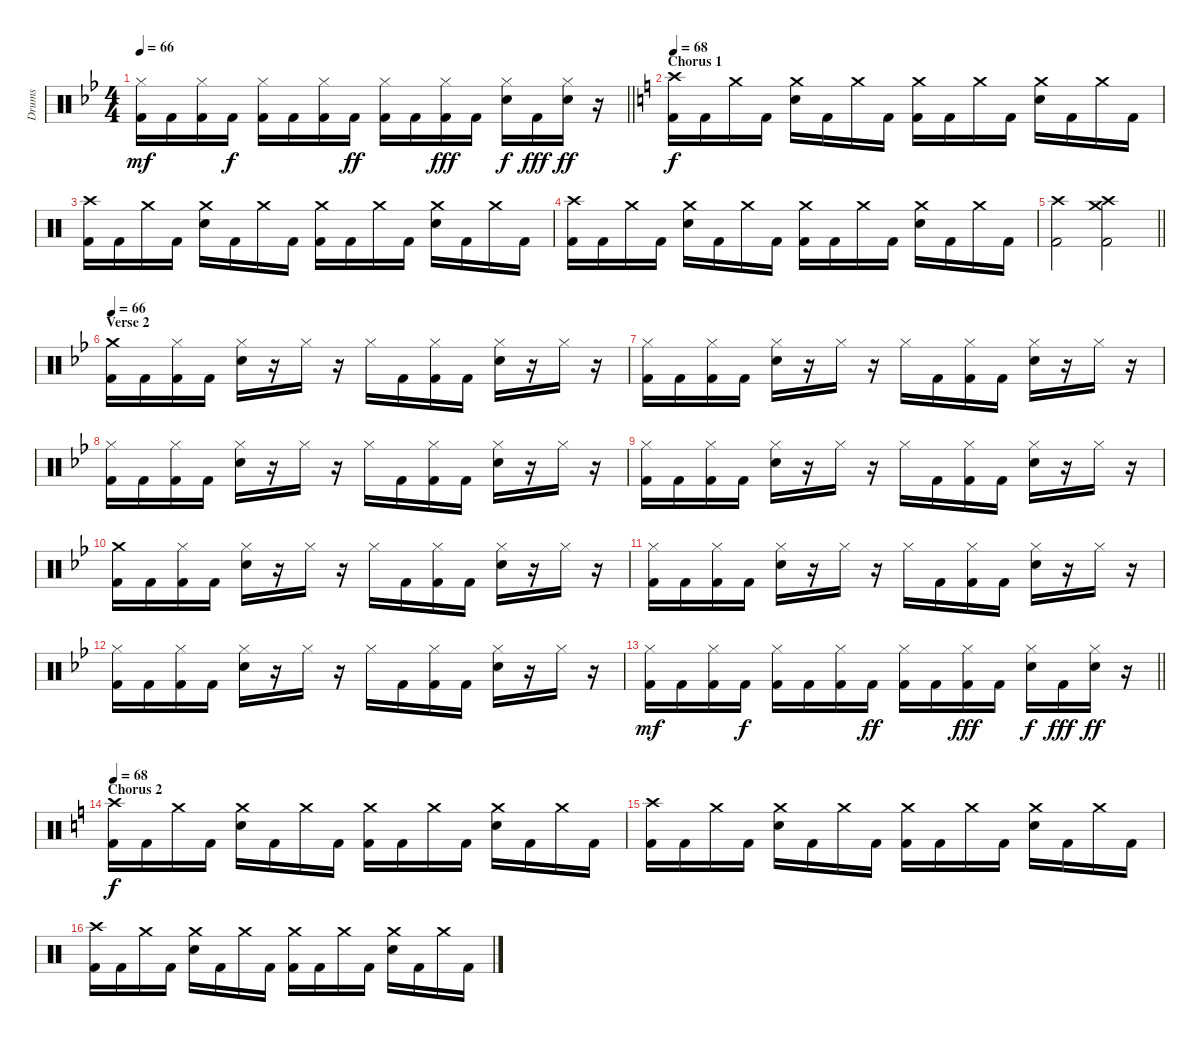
\track ("Drums" "Drums") {instrument percussion}
\staff {score}
\articulation defaults
\ts (4 4)
\tempo 66
\clef neutral
\barLineRight lightlight
\ks bb
("Hi-Hat (closed)" "Kick (hit) 2").16{dy mf} "Kick (hit) 2".16 ("Hi-Hat (closed)" "Kick (hit) 2").16 "Kick (hit) 2".16{dy f} ("Hi-Hat (closed)" "Kick (hit) 2").16 "Kick (hit) 2".16 ("Hi-Hat (closed)" "Kick (hit) 2").16 "Kick (hit) 2".16{dy ff} ("Hi-Hat (closed)" "Kick (hit) 2").16 "Kick (hit) 2".16 ("Hi-Hat (closed)" "Kick (hit) 2").16{dy fff} "Kick (hit) 2".16 ("Hi-Hat (closed)" "Electric Snare (hit)").16{dy f} "Kick (hit) 2".16{dy fff} ("Hi-Hat (closed)" "Electric Snare (hit)").16{dy ff} r.16 |
\section ("" "Chorus 1")
\tempo 68
\ks c
("Crash high (hit)" "Kick (hit) 2").16{dy f} "Kick (hit) 2".16 "Crash medium (hit)".16 "Kick (hit) 2".16 ("Crash medium (hit)" "Electric Snare (hit)").16 "Kick (hit) 2".16 "Crash medium (hit)".16 "Kick (hit) 2".16 ("Crash medium (hit)" "Kick (hit) 2").16 "Kick (hit) 2".16 "Crash medium (hit)".16 "Kick (hit) 2".16 ("Crash medium (hit)" "Electric Snare (hit)").16 "Kick (hit) 2".16 "Crash medium (hit)".16 "Kick (hit) 2".16 |
("Crash high (hit)" "Kick (hit) 2").16 "Kick (hit) 2".16 "Crash medium (hit)".16 "Kick (hit) 2".16 ("Crash medium (hit)" "Electric Snare (hit)").16 "Kick (hit) 2".16 "Crash medium (hit)".16 "Kick (hit) 2".16 ("Crash medium (hit)" "Kick (hit) 2").16 "Kick (hit) 2".16 "Crash medium (hit)".16 "Kick (hit) 2".16 ("Crash medium (hit)" "Electric Snare (hit)").16 "Kick (hit) 2".16 "Crash medium (hit)".16 "Kick (hit) 2".16 |
("Crash high (hit)" "Kick (hit) 2").16 "Kick (hit) 2".16 "Crash medium (hit)".16 "Kick (hit) 2".16 ("Crash medium (hit)" "Electric Snare (hit)").16 "Kick (hit) 2".16 "Crash medium (hit)".16 "Kick (hit) 2".16 ("Crash medium (hit)" "Kick (hit) 2").16 "Kick (hit) 2".16 "Crash medium (hit)".16 "Kick (hit) 2".16 ("Crash medium (hit)" "Electric Snare (hit)").16 "Kick (hit) 2".16 "Crash medium (hit)".16 "Kick (hit) 2".16 |
\barLineRight lightlight
("Crash high (hit)" "Kick (hit) 2").2 ("Crash high (hit)" "Crash medium (hit)" "Kick (hit) 2").2 |
\section ("" "Verse 2")
\tempo 66
\ks bb
("Crash medium (hit)" "Kick (hit) 2").16 "Kick (hit) 2".16 ("Hi-Hat (closed)" "Kick (hit) 2").16 "Kick (hit) 2".16 ("Hi-Hat (closed)" "Electric Snare (hit)").16 r.16 "Hi-Hat (closed)".16 r.16 "Hi-Hat (closed)".16 "Kick (hit) 2".16 ("Hi-Hat (closed)" "Kick (hit) 2").16 "Kick (hit) 2".16 ("Hi-Hat (closed)" "Electric Snare (hit)").16 r.16 "Hi-Hat (closed)".16 r.16 |
("Hi-Hat (closed)" "Kick (hit) 2").16 "Kick (hit) 2".16 ("Hi-Hat (closed)" "Kick (hit) 2").16 "Kick (hit) 2".16 ("Hi-Hat (closed)" "Electric Snare (hit)").16 r.16 "Hi-Hat (closed)".16 r.16 "Hi-Hat (closed)".16 "Kick (hit) 2".16 ("Hi-Hat (closed)" "Kick (hit) 2").16 "Kick (hit) 2".16 ("Hi-Hat (closed)" "Electric Snare (hit)").16 r.16 "Hi-Hat (closed)".16 r.16 |
("Hi-Hat (closed)" "Kick (hit) 2").16 "Kick (hit) 2".16 ("Hi-Hat (closed)" "Kick (hit) 2").16 "Kick (hit) 2".16 ("Hi-Hat (closed)" "Electric Snare (hit)").16 r.16 "Hi-Hat (closed)".16 r.16 "Hi-Hat (closed)".16 "Kick (hit) 2".16 ("Hi-Hat (closed)" "Kick (hit) 2").16 "Kick (hit) 2".16 ("Hi-Hat (closed)" "Electric Snare (hit)").16 r.16 "Hi-Hat (closed)".16 r.16 |
("Hi-Hat (closed)" "Kick (hit) 2").16 "Kick (hit) 2".16 ("Hi-Hat (closed)" "Kick (hit) 2").16 "Kick (hit) 2".16 ("Hi-Hat (closed)" "Electric Snare (hit)").16 r.16 "Hi-Hat (closed)".16 r.16 "Hi-Hat (closed)".16 "Kick (hit) 2".16 ("Hi-Hat (closed)" "Kick (hit) 2").16 "Kick (hit) 2".16 ("Hi-Hat (closed)" "Electric Snare (hit)").16 r.16 "Hi-Hat (closed)".16 r.16 |
("Crash medium (hit)" "Kick (hit) 2").16 "Kick (hit) 2".16 ("Hi-Hat (closed)" "Kick (hit) 2").16 "Kick (hit) 2".16 ("Hi-Hat (closed)" "Electric Snare (hit)").16 r.16 "Hi-Hat (closed)".16 r.16 "Hi-Hat (closed)".16 "Kick (hit) 2".16 ("Hi-Hat (closed)" "Kick (hit) 2").16 "Kick (hit) 2".16 ("Hi-Hat (closed)" "Electric Snare (hit)").16 r.16 "Hi-Hat (closed)".16 r.16 |
("Hi-Hat (closed)" "Kick (hit) 2").16 "Kick (hit) 2".16 ("Hi-Hat (closed)" "Kick (hit) 2").16 "Kick (hit) 2".16 ("Hi-Hat (closed)" "Electric Snare (hit)").16 r.16 "Hi-Hat (closed)".16 r.16 "Hi-Hat (closed)".16 "Kick (hit) 2".16 ("Hi-Hat (closed)" "Kick (hit) 2").16 "Kick (hit) 2".16 ("Hi-Hat (closed)" "Electric Snare (hit)").16 r.16 "Hi-Hat (closed)".16 r.16 |
("Hi-Hat (closed)" "Kick (hit) 2").16 "Kick (hit) 2".16 ("Hi-Hat (closed)" "Kick (hit) 2").16 "Kick (hit) 2".16 ("Hi-Hat (closed)" "Electric Snare (hit)").16 r.16 "Hi-Hat (closed)".16 r.16 "Hi-Hat (closed)".16 "Kick (hit) 2".16 ("Hi-Hat (closed)" "Kick (hit) 2").16 "Kick (hit) 2".16 ("Hi-Hat (closed)" "Electric Snare (hit)").16 r.16 "Hi-Hat (closed)".16 r.16 |
\barLineRight lightlight
("Hi-Hat (closed)" "Kick (hit) 2").16{dy mf} "Kick (hit) 2".16 ("Hi-Hat (closed)" "Kick (hit) 2").16 "Kick (hit) 2".16{dy f} ("Hi-Hat (closed)" "Kick (hit) 2").16 "Kick (hit) 2".16 ("Hi-Hat (closed)" "Kick (hit) 2").16 "Kick (hit) 2".16{dy ff} ("Hi-Hat (closed)" "Kick (hit) 2").16 "Kick (hit) 2".16 ("Hi-Hat (closed)" "Kick (hit) 2").16{dy fff} "Kick (hit) 2".16 ("Hi-Hat (closed)" "Electric Snare (hit)").16{dy f} "Kick (hit) 2".16{dy fff} ("Hi-Hat (closed)" "Electric Snare (hit)").16{dy ff} r.16 |
\section ("" "Chorus 2")
\tempo 68
\ks c
("Crash high (hit)" "Kick (hit) 2").16{dy f} "Kick (hit) 2".16 "Crash medium (hit)".16 "Kick (hit) 2".16 ("Crash medium (hit)" "Electric Snare (hit)").16 "Kick (hit) 2".16 "Crash medium (hit)".16 "Kick (hit) 2".16 ("Crash medium (hit)" "Kick (hit) 2").16 "Kick (hit) 2".16 "Crash medium (hit)".16 "Kick (hit) 2".16 ("Crash medium (hit)" "Electric Snare (hit)").16 "Kick (hit) 2".16 "Crash medium (hit)".16 "Kick (hit) 2".16 |
("Crash high (hit)" "Kick (hit) 2").16 "Kick (hit) 2".16 "Crash medium (hit)".16 "Kick (hit) 2".16 ("Crash medium (hit)" "Electric Snare (hit)").16 "Kick (hit) 2".16 "Crash medium (hit)".16 "Kick (hit) 2".16 ("Crash medium (hit)" "Kick (hit) 2").16 "Kick (hit) 2".16 "Crash medium (hit)".16 "Kick (hit) 2".16 ("Crash medium (hit)" "Electric Snare (hit)").16 "Kick (hit) 2".16 "Crash medium (hit)".16 "Kick (hit) 2".16 |
("Crash high (hit)" "Kick (hit) 2").16 "Kick (hit) 2".16 "Crash medium (hit)".16 "Kick (hit) 2".16 ("Crash medium (hit)" "Electric Snare (hit)").16 "Kick (hit) 2".16 "Crash medium (hit)".16 "Kick (hit) 2".16 ("Crash medium (hit)" "Kick (hit) 2").16 "Kick (hit) 2".16 "Crash medium (hit)".16 "Kick (hit) 2".16 ("Crash medium (hit)" "Electric Snare (hit)").16 "Kick (hit) 2".16 "Crash medium (hit)".16 "Kick (hit) 2".16
